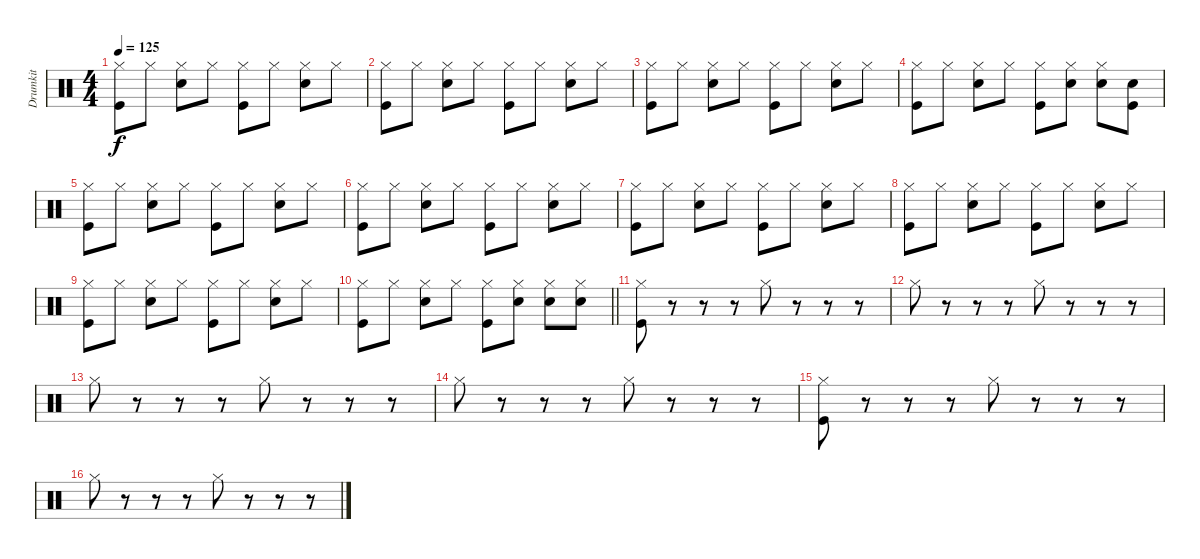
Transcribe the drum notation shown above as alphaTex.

\track ("Drumkit" "Drumkit") {instrument percussion}
\staff {score}
\articulation defaults
\ts (4 4)
\tempo 125
\clef neutral
\ks c
("Kick (hit)" "Hi-Hat (closed)").8{dy f} "Hi-Hat (closed)".8 ("Snare (hit) 2" "Hi-Hat (closed)").8 "Hi-Hat (closed)".8 ("Kick (hit)" "Hi-Hat (closed)").8 "Hi-Hat (closed)".8 ("Snare (hit) 2" "Hi-Hat (closed)").8 "Hi-Hat (closed)".8 |
("Kick (hit)" "Hi-Hat (closed)").8 "Hi-Hat (closed)".8 ("Snare (hit) 2" "Hi-Hat (closed)").8 "Hi-Hat (closed)".8 ("Kick (hit)" "Hi-Hat (closed)").8 "Hi-Hat (closed)".8 ("Snare (hit) 2" "Hi-Hat (closed)").8 "Hi-Hat (closed)".8 |
("Kick (hit)" "Hi-Hat (closed)").8 "Hi-Hat (closed)".8 ("Snare (hit) 2" "Hi-Hat (closed)").8 "Hi-Hat (closed)".8 ("Kick (hit)" "Hi-Hat (closed)").8 "Hi-Hat (closed)".8 ("Snare (hit) 2" "Hi-Hat (closed)").8 "Hi-Hat (closed)".8 |
("Kick (hit)" "Hi-Hat (closed)").8 "Hi-Hat (closed)".8 ("Snare (hit) 2" "Hi-Hat (closed)").8 "Hi-Hat (closed)".8 ("Kick (hit)" "Hi-Hat (closed)").8 ("Snare (hit) 2" "Hi-Hat (closed)").8 ("Snare (hit) 2" "Hi-Hat (closed)").8 ("Snare (hit) 2" "Kick (hit)").8 |
("Kick (hit)" "Hi-Hat (closed)").8 "Hi-Hat (closed)".8 ("Snare (hit) 2" "Hi-Hat (closed)").8 "Hi-Hat (closed)".8 ("Kick (hit)" "Hi-Hat (closed)").8 "Hi-Hat (closed)".8 ("Snare (hit) 2" "Hi-Hat (closed)").8 "Hi-Hat (closed)".8 |
("Kick (hit)" "Hi-Hat (closed)").8 "Hi-Hat (closed)".8 ("Snare (hit) 2" "Hi-Hat (closed)").8 "Hi-Hat (closed)".8 ("Kick (hit)" "Hi-Hat (closed)").8 "Hi-Hat (closed)".8 ("Snare (hit) 2" "Hi-Hat (closed)").8 "Hi-Hat (closed)".8 |
("Kick (hit)" "Hi-Hat (closed)").8 "Hi-Hat (closed)".8 ("Snare (hit) 2" "Hi-Hat (closed)").8 "Hi-Hat (closed)".8 ("Kick (hit)" "Hi-Hat (closed)").8 "Hi-Hat (closed)".8 ("Snare (hit) 2" "Hi-Hat (closed)").8 "Hi-Hat (closed)".8 |
("Kick (hit)" "Hi-Hat (closed)").8 "Hi-Hat (closed)".8 ("Snare (hit) 2" "Hi-Hat (closed)").8 "Hi-Hat (closed)".8 ("Kick (hit)" "Hi-Hat (closed)").8 "Hi-Hat (closed)".8 ("Snare (hit) 2" "Hi-Hat (closed)").8 "Hi-Hat (closed)".8 |
("Kick (hit)" "Hi-Hat (closed)").8 "Hi-Hat (closed)".8 ("Snare (hit) 2" "Hi-Hat (closed)").8 "Hi-Hat (closed)".8 ("Kick (hit)" "Hi-Hat (closed)").8 "Hi-Hat (closed)".8 ("Snare (hit) 2" "Hi-Hat (closed)").8 "Hi-Hat (closed)".8 |
\barLineRight lightlight
("Kick (hit)" "Hi-Hat (closed)").8 "Hi-Hat (closed)".8 ("Snare (hit) 2" "Hi-Hat (closed)").8 "Hi-Hat (closed)".8 ("Kick (hit)" "Hi-Hat (closed)").8 ("Snare (hit) 2" "Hi-Hat (closed)").8 ("Snare (hit) 2" "Hi-Hat (closed)").8 ("Snare (hit) 2" "Hi-Hat (closed)").8 |
("Kick (hit)" "Hi-Hat (closed)").8 r.8 r.8 r.8 "Hi-Hat (closed)".8 r.8 r.8 r.8 |
"Hi-Hat (closed)".8 r.8 r.8 r.8 "Hi-Hat (closed)".8 r.8 r.8 r.8 |
"Hi-Hat (closed)".8 r.8 r.8 r.8 "Hi-Hat (closed)".8 r.8 r.8 r.8 |
"Hi-Hat (closed)".8 r.8 r.8 r.8 "Hi-Hat (closed)".8 r.8 r.8 r.8 |
("Kick (hit)" "Hi-Hat (closed)").8 r.8 r.8 r.8 "Hi-Hat (closed)".8 r.8 r.8 r.8 |
"Hi-Hat (closed)".8 r.8 r.8 r.8 "Hi-Hat (closed)".8 r.8 r.8 r.8
